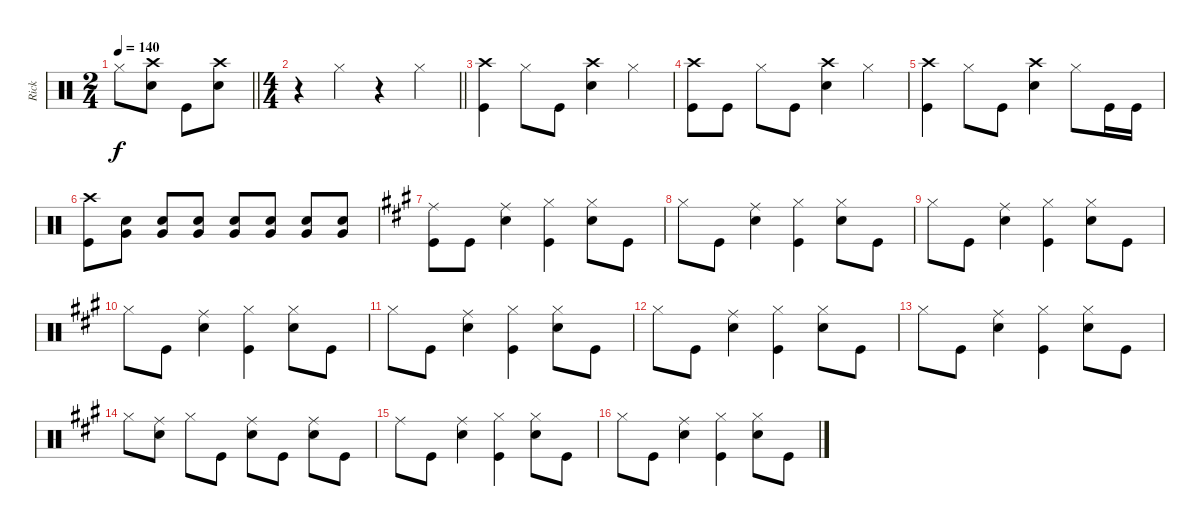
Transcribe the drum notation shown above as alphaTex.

\track ("Rick" "Rick") {instrument percussion}
\staff {score}
\articulation defaults
\ts (2 4)
\tempo 140
\clef neutral
\barLineRight lightlight
\ks c "Hi-Hat (closed)".8{dy f}
("Crash high (hit)" "Snare (hit) 2").8 "Kick (hit)".8 ("Crash high (hit)" "Snare (hit) 2").8 |
\ts (4 4)
\barLineRight lightlight
r.4 "Hi-Hat (closed)".4 r.4 "Hi-Hat (closed)".4 |
("Crash high (hit)" "Kick (hit)").4 "Hi-Hat (closed)".8 "Kick (hit)".8 ("Crash high (hit)" "Snare (hit) 2").4 "Hi-Hat (closed)".4 |
("Crash high (hit)" "Kick (hit)").8 "Kick (hit)".8 "Hi-Hat (closed)".8 "Kick (hit)".8 ("Crash high (hit)" "Snare (hit) 2").4 "Hi-Hat (closed)".4 |
("Crash high (hit)" "Kick (hit)").4 "Hi-Hat (closed)".8 "Kick (hit)".8 ("Crash high (hit)" "Snare (hit) 2").4 "Hi-Hat (closed)".8 "Kick (hit)".16 "Kick (hit)".16 |
("Crash high (hit)" "Kick (hit)").8 ("Snare (hit) 2" "Very Low Tom (hit)").8 ("Snare (hit) 2" "Very Low Tom (hit)").8 ("Snare (hit) 2" "Very Low Tom (hit)").8 ("Snare (hit) 2" "Very Low Tom (hit)").8 ("Snare (hit) 2" "Very Low Tom (hit)").8 ("Snare (hit) 2" "Very Low Tom (hit)").8 ("Snare (hit) 2" "Very Low Tom (hit)").8 |
\ks a
("Ride (middle)" "Kick (hit)").8 "Kick (hit)".8 ("Ride (middle)" "Snare (hit) 2").4 ("Hi-Hat (closed)" "Kick (hit)").4 ("Hi-Hat (closed)" "Snare (hit) 2").8 "Kick (hit)".8 |
"Hi-Hat (closed)".8 "Kick (hit)".8 ("Ride (middle)" "Snare (hit) 2").4 ("Hi-Hat (closed)" "Kick (hit)").4 ("Hi-Hat (closed)" "Snare (hit) 2").8 "Kick (hit)".8 |
"Hi-Hat (closed)".8 "Kick (hit)".8 ("Ride (middle)" "Snare (hit) 2").4 ("Hi-Hat (closed)" "Kick (hit)").4 ("Hi-Hat (closed)" "Snare (hit) 2").8 "Kick (hit)".8 |
"Hi-Hat (closed)".8 "Kick (hit)".8 ("Ride (middle)" "Snare (hit) 2").4 ("Hi-Hat (closed)" "Kick (hit)").4 ("Hi-Hat (closed)" "Snare (hit) 2").8 "Kick (hit)".8 |
"Hi-Hat (closed)".8 "Kick (hit)".8 ("Ride (middle)" "Snare (hit) 2").4 ("Hi-Hat (closed)" "Kick (hit)").4 ("Hi-Hat (closed)" "Snare (hit) 2").8 "Kick (hit)".8 |
"Hi-Hat (closed)".8 "Kick (hit)".8 ("Ride (middle)" "Snare (hit) 2").4 ("Hi-Hat (closed)" "Kick (hit)").4 ("Hi-Hat (closed)" "Snare (hit) 2").8 "Kick (hit)".8 |
"Hi-Hat (closed)".8 "Kick (hit)".8 ("Ride (middle)" "Snare (hit) 2").4 ("Hi-Hat (closed)" "Kick (hit)").4 ("Hi-Hat (closed)" "Snare (hit) 2").8 "Kick (hit)".8 |
"Hi-Hat (closed)".8 ("Ride (middle)" "Snare (hit) 2").8 "Hi-Hat (closed)".8 "Kick (hit)".8 ("Ride (middle)" "Snare (hit) 2").8 "Kick (hit)".8 ("Ride (middle)" "Snare (hit) 2").8 "Kick (hit)".8 |
"Ride (middle)".8 "Kick (hit)".8 ("Ride (middle)" "Snare (hit) 2").4 ("Hi-Hat (closed)" "Kick (hit)").4 ("Hi-Hat (closed)" "Snare (hit) 2").8 "Kick (hit)".8 |
"Hi-Hat (closed)".8 "Kick (hit)".8 ("Ride (middle)" "Snare (hit) 2").4 ("Hi-Hat (closed)" "Kick (hit)").4 ("Hi-Hat (closed)" "Snare (hit) 2").8 "Kick (hit)".8
